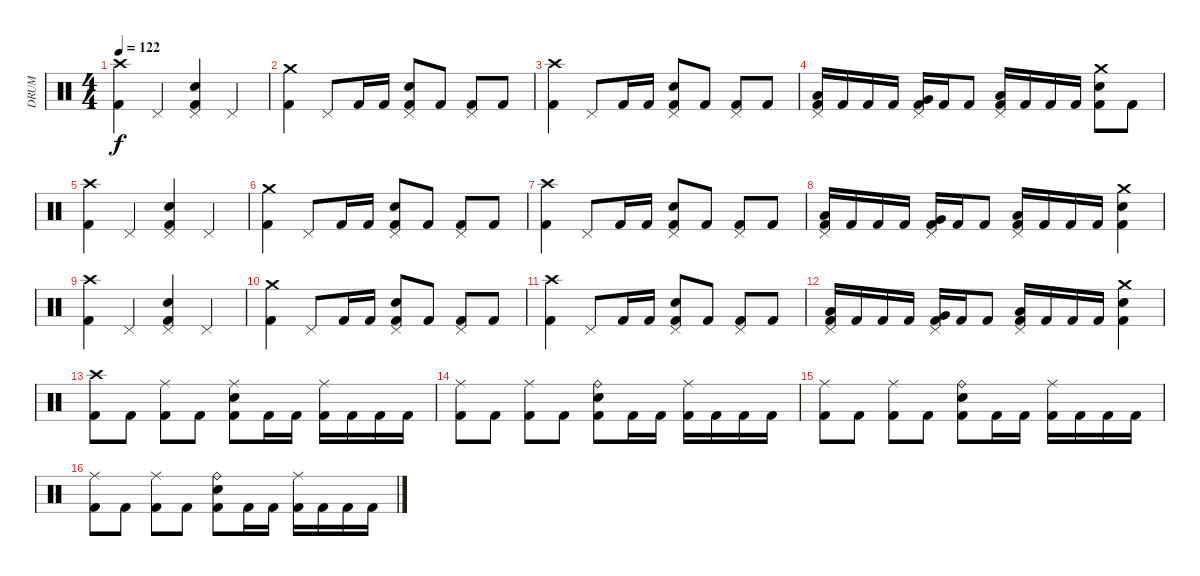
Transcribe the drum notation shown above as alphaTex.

\track ("DRUM" "DRUM") {instrument percussion}
\staff {score}
\articulation defaults
\ts (4 4)
\tempo 122
\clef neutral
\ks c
("Crash high (hit)" "Kick (hit) 2").4{dy f} "Pedal Hi-Hat (hit)".4 ("Pedal Hi-Hat (hit)" "Electric Snare (hit)" "Kick (hit) 2").4 "Pedal Hi-Hat (hit)".4 |
("Crash medium (hit)" "Kick (hit) 2").4 "Pedal Hi-Hat (hit)".8 "Kick (hit) 2".16 "Kick (hit) 2".16 ("Pedal Hi-Hat (hit)" "Electric Snare (hit)" "Kick (hit) 2").8 "Kick (hit) 2".8 ("Pedal Hi-Hat (hit)" "Kick (hit) 2").8 "Kick (hit) 2".8 |
("Crash high (hit)" "Kick (hit) 2").4 "Pedal Hi-Hat (hit)".8 "Kick (hit) 2".16 "Kick (hit) 2".16 ("Pedal Hi-Hat (hit)" "Electric Snare (hit)" "Kick (hit) 2").8 "Kick (hit) 2".8 ("Pedal Hi-Hat (hit)" "Kick (hit) 2").8 "Kick (hit) 2".8 |
("Low Tom (hit)" "Kick (hit) 2" "Pedal Hi-Hat (hit)").16 "Kick (hit) 2".16 "Kick (hit) 2".16 "Kick (hit) 2".16 ("Very Low Tom (hit)" "Kick (hit) 2" "Pedal Hi-Hat (hit)").16 "Kick (hit) 2".16 "Kick (hit) 2".8 ("Low Floor Tom (hit)" "Kick (hit) 2" "Pedal Hi-Hat (hit)").16 "Kick (hit) 2".16 "Kick (hit) 2".16 "Kick (hit) 2".16 ("Crash medium (hit)" "Electric Snare (hit)" "Kick (hit) 2").8 "Kick (hit) 2".8 |
("Crash high (hit)" "Kick (hit) 2").4 "Pedal Hi-Hat (hit)".4 ("Pedal Hi-Hat (hit)" "Electric Snare (hit)" "Kick (hit) 2").4 "Pedal Hi-Hat (hit)".4 |
("Crash medium (hit)" "Kick (hit) 2").4 "Pedal Hi-Hat (hit)".8 "Kick (hit) 2".16 "Kick (hit) 2".16 ("Pedal Hi-Hat (hit)" "Electric Snare (hit)" "Kick (hit) 2").8 "Kick (hit) 2".8 ("Pedal Hi-Hat (hit)" "Kick (hit) 2").8 "Kick (hit) 2".8 |
("Crash high (hit)" "Kick (hit) 2").4 "Pedal Hi-Hat (hit)".8 "Kick (hit) 2".16 "Kick (hit) 2".16 ("Pedal Hi-Hat (hit)" "Electric Snare (hit)" "Kick (hit) 2").8 "Kick (hit) 2".8 ("Pedal Hi-Hat (hit)" "Kick (hit) 2").8 "Kick (hit) 2".8 |
("Low Tom (hit)" "Kick (hit) 2" "Pedal Hi-Hat (hit)").16 "Kick (hit) 2".16 "Kick (hit) 2".16 "Kick (hit) 2".16 ("Very Low Tom (hit)" "Kick (hit) 2" "Pedal Hi-Hat (hit)").16 "Kick (hit) 2".16 "Kick (hit) 2".8 ("Low Floor Tom (hit)" "Kick (hit) 2" "Pedal Hi-Hat (hit)").16 "Kick (hit) 2".16 "Kick (hit) 2".16 "Kick (hit) 2".16 ("Crash medium (hit)" "Electric Snare (hit)" "Kick (hit) 2").4 |
("Crash high (hit)" "Kick (hit) 2").4 "Pedal Hi-Hat (hit)".4 ("Pedal Hi-Hat (hit)" "Electric Snare (hit)" "Kick (hit) 2").4 "Pedal Hi-Hat (hit)".4 |
("Crash medium (hit)" "Kick (hit) 2").4 "Pedal Hi-Hat (hit)".8 "Kick (hit) 2".16 "Kick (hit) 2".16 ("Pedal Hi-Hat (hit)" "Electric Snare (hit)" "Kick (hit) 2").8 "Kick (hit) 2".8 ("Pedal Hi-Hat (hit)" "Kick (hit) 2").8 "Kick (hit) 2".8 |
("Crash high (hit)" "Kick (hit) 2").4 "Pedal Hi-Hat (hit)".8 "Kick (hit) 2".16 "Kick (hit) 2".16 ("Pedal Hi-Hat (hit)" "Electric Snare (hit)" "Kick (hit) 2").8 "Kick (hit) 2".8 ("Pedal Hi-Hat (hit)" "Kick (hit) 2").8 "Kick (hit) 2".8 |
("Low Tom (hit)" "Kick (hit) 2" "Pedal Hi-Hat (hit)").16 "Kick (hit) 2".16 "Kick (hit) 2".16 "Kick (hit) 2".16 ("Very Low Tom (hit)" "Kick (hit) 2" "Pedal Hi-Hat (hit)").16 "Kick (hit) 2".16 "Kick (hit) 2".8 ("Low Floor Tom (hit)" "Kick (hit) 2" "Pedal Hi-Hat (hit)").16 "Kick (hit) 2".16 "Kick (hit) 2".16 "Kick (hit) 2".16 ("Crash medium (hit)" "Electric Snare (hit)" "Kick (hit) 2").4 |
("Crash high (hit)" "Kick (hit) 2").8 "Kick (hit) 2".8 ("Ride (middle)" "Kick (hit) 2").8 "Kick (hit) 2".8 ("Ride (middle)" "Electric Snare (hit)" "Kick (hit) 2").8 "Kick (hit) 2".16 "Kick (hit) 2".16 ("Ride (middle)" "Kick (hit) 2").16 "Kick (hit) 2".16 "Kick (hit) 2".16 "Kick (hit) 2".16 |
("Ride (middle)" "Kick (hit) 2").8 "Kick (hit) 2".8 ("Ride (middle)" "Kick (hit) 2").8 "Kick (hit) 2".8 ("Ride (bell)" "Electric Snare (hit)" "Kick (hit) 2").8 "Kick (hit) 2".16 "Kick (hit) 2".16 ("Ride (middle)" "Kick (hit) 2").16 "Kick (hit) 2".16 "Kick (hit) 2".16 "Kick (hit) 2".16 |
("Ride (middle)" "Kick (hit) 2").8 "Kick (hit) 2".8 ("Ride (middle)" "Kick (hit) 2").8 "Kick (hit) 2".8 ("Ride (bell)" "Electric Snare (hit)" "Kick (hit) 2").8 "Kick (hit) 2".16 "Kick (hit) 2".16 ("Ride (middle)" "Kick (hit) 2").16 "Kick (hit) 2".16 "Kick (hit) 2".16 "Kick (hit) 2".16 |
("Ride (middle)" "Kick (hit) 2").8 "Kick (hit) 2".8 ("Ride (middle)" "Kick (hit) 2").8 "Kick (hit) 2".8 ("Ride (bell)" "Electric Snare (hit)" "Kick (hit) 2").8 "Kick (hit) 2".16 "Kick (hit) 2".16 ("Ride (middle)" "Kick (hit) 2").16 "Kick (hit) 2".16 "Kick (hit) 2".16 "Kick (hit) 2".16
